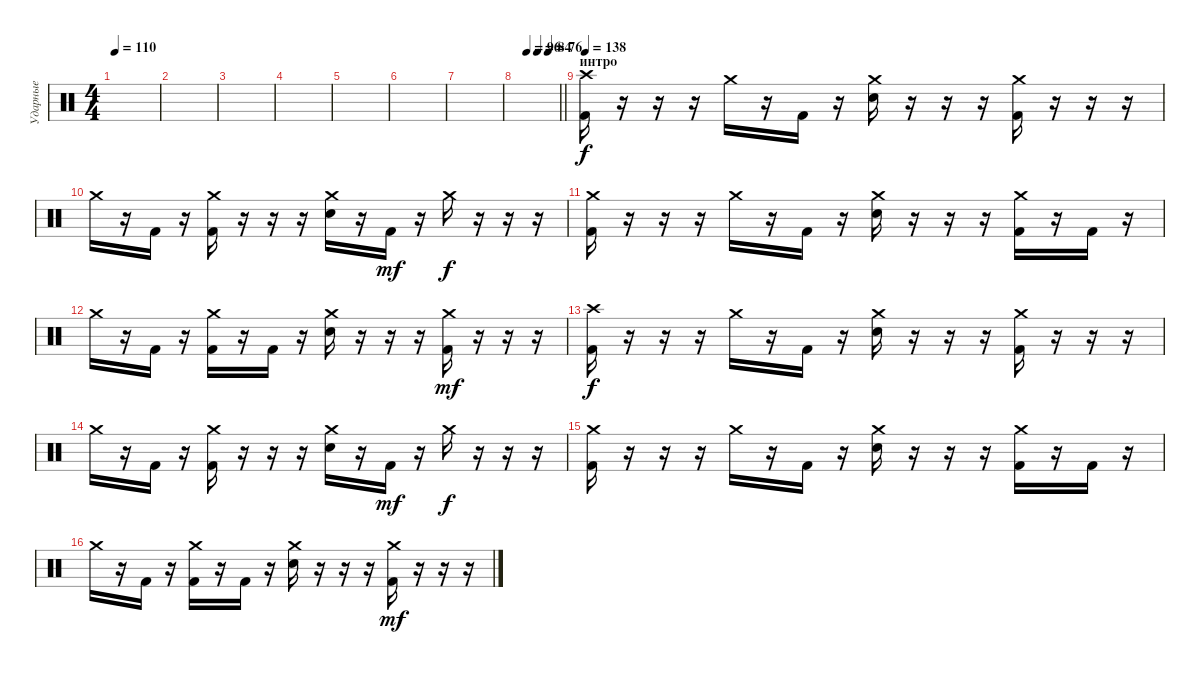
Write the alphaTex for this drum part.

\track ("Ударные" "Ударные") {instrument percussion}
\staff {score}
\articulation defaults
\ts (4 4)
\tempo 110
\clef neutral
\ks c
|
|
|
|
|
|
|
\tempo (96 0.25)
\tempo (84 0.5)
\tempo (76 0.75)
\barLineRight lightlight
|
\section ("" "интро")
\tempo 138
("Crash high (hit)" "Kick (hit) 2").16 r.16 r.16 r.16 "Crash medium (hit)".16 r.16 "Kick (hit) 2".16 r.16 ("Crash medium (hit)" "Electric Snare (hit)").16 r.16 r.16 r.16 ("Crash medium (hit)" "Kick (hit) 2").16 r.16 r.16 r.16 |
"Crash medium (hit)".16 r.16 "Kick (hit) 2".16 r.16 ("Crash medium (hit)" "Kick (hit) 2").16 r.16 r.16 r.16 ("Crash medium (hit)" "Electric Snare (hit)").16 r.16 "Kick (hit) 2".16{dy mf} r.16 "Crash medium (hit)".16{dy f} r.16 r.16 r.16 |
("Crash medium (hit)" "Kick (hit) 2").16 r.16 r.16 r.16 "Crash medium (hit)".16 r.16 "Kick (hit) 2".16 r.16 ("Crash medium (hit)" "Electric Snare (hit)").16 r.16 r.16 r.16 ("Crash medium (hit)" "Kick (hit) 2").16 r.16 "Kick (hit) 2".16 r.16 |
"Crash medium (hit)".16 r.16 "Kick (hit) 2".16 r.16 ("Crash medium (hit)" "Kick (hit) 2").16 r.16 "Kick (hit) 2".16 r.16 ("Crash medium (hit)" "Electric Snare (hit)").16 r.16 r.16 r.16 ("Crash medium (hit)" "Kick (hit) 2").16{dy mf} r.16 r.16 r.16 |
("Crash high (hit)" "Kick (hit) 2").16{dy f} r.16 r.16 r.16 "Crash medium (hit)".16 r.16 "Kick (hit) 2".16 r.16 ("Crash medium (hit)" "Electric Snare (hit)").16 r.16 r.16 r.16 ("Crash medium (hit)" "Kick (hit) 2").16 r.16 r.16 r.16 |
"Crash medium (hit)".16 r.16 "Kick (hit) 2".16 r.16 ("Crash medium (hit)" "Kick (hit) 2").16 r.16 r.16 r.16 ("Crash medium (hit)" "Electric Snare (hit)").16 r.16 "Kick (hit) 2".16{dy mf} r.16 "Crash medium (hit)".16{dy f} r.16 r.16 r.16 |
("Crash medium (hit)" "Kick (hit) 2").16 r.16 r.16 r.16 "Crash medium (hit)".16 r.16 "Kick (hit) 2".16 r.16 ("Crash medium (hit)" "Electric Snare (hit)").16 r.16 r.16 r.16 ("Crash medium (hit)" "Kick (hit) 2").16 r.16 "Kick (hit) 2".16 r.16 |
"Crash medium (hit)".16 r.16 "Kick (hit) 2".16 r.16 ("Crash medium (hit)" "Kick (hit) 2").16 r.16 "Kick (hit) 2".16 r.16 ("Crash medium (hit)" "Electric Snare (hit)").16 r.16 r.16 r.16 ("Crash medium (hit)" "Kick (hit) 2").16{dy mf} r.16 r.16 r.16
